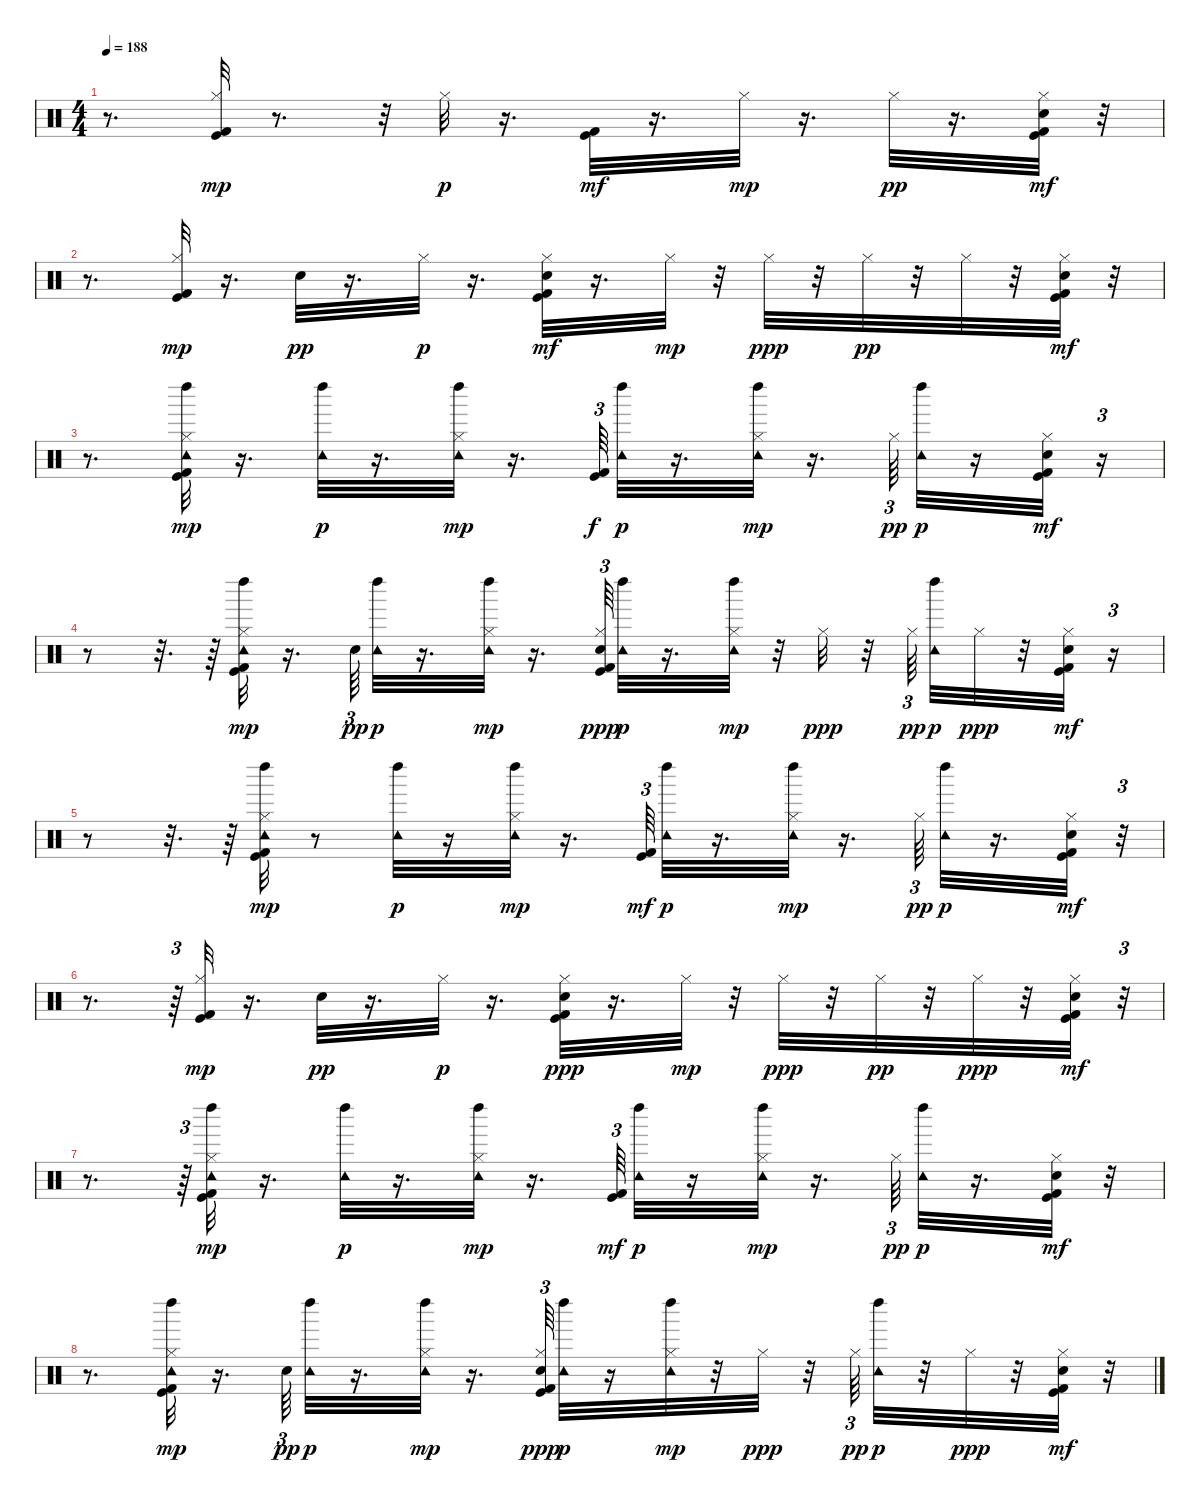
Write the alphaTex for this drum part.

\track "" {instrument percussion}
\staff {score}
\articulation defaults
\ts (4 4)
\tempo 188
\clef neutral
\ks c
r.8{d dy mf} ("Kick (hit) 2" "Hi-Hat (closed)" "Kick (hit)").32{dy mp} r.8{d} r.32 "Hi-Hat (closed)".32{dy p} r.16{d} ("Kick (hit) 2" "Kick (hit)").32{dy mf} r.16{d} "Hi-Hat (closed)".32{dy mp} r.16{d} "Hi-Hat (closed)".32{dy pp} r.16{d} ("Kick (hit) 2" "Hi-Hat (closed)" "Electric Snare (hit)" "Kick (hit)").32{dy mf} r.32 |
r.8{d} ("Kick (hit) 2" "Hi-Hat (closed)" "Kick (hit)").32{dy mp} r.16{d} "Electric Snare (hit)".32{dy pp} r.16{d} "Hi-Hat (closed)".32{dy p} r.16{d} ("Kick (hit) 2" "Electric Snare (hit)" "Hi-Hat (closed)" "Kick (hit)").32{dy mf} r.16{d} "Hi-Hat (closed)".32{dy mp} r.32 "Hi-Hat (closed)".32{dy ppp} r.32 "Hi-Hat (closed)".32{dy pp} r.32 "Hi-Hat (closed)".32 r.32 ("Kick (hit) 2" "Hi-Hat (closed)" "Electric Snare (hit)" "Kick (hit)").32{dy mf} r.32 |
r.8{d} ("Kick (hit) 2" "Hi-Hat (closed)" "Tambourine (hit)" "Left Maraca (hit)" "Kick (hit)").32{dy mp} r.16{d} ("Tambourine (hit)" "Left Maraca (hit)").32{dy p} r.16{d} ("Hi-Hat (closed)" "Tambourine (hit)" "Left Maraca (hit)").32{dy mp} r.16{d} ("Kick (hit) 2" "Kick (hit)").64{tu (3 2) dy f} ("Tambourine (hit)" "Left Maraca (hit)").32{dy p} r.16{d} ("Hi-Hat (closed)" "Tambourine (hit)" "Left Maraca (hit)").32{dy mp} r.16{d} "Hi-Hat (closed)".64{tu (3 2) dy pp} ("Tambourine (hit)" "Left Maraca (hit)").32{dy p} r.16 ("Kick (hit) 2" "Hi-Hat (closed)" "Electric Snare (hit)" "Kick (hit)").32{dy mf} r.16{tu (3 2)} |
r.8 r.32{d} r.64 ("Kick (hit) 2" "Hi-Hat (closed)" "Tambourine (hit)" "Left Maraca (hit)" "Kick (hit)").32{dy mp} r.16{d} "Electric Snare (hit)".64{tu (3 2) dy pp} ("Tambourine (hit)" "Left Maraca (hit)").32{dy p} r.16{d} ("Hi-Hat (closed)" "Tambourine (hit)" "Left Maraca (hit)").32{dy mp} r.16{d} ("Kick (hit) 2" "Electric Snare (hit)" "Hi-Hat (closed)" "Kick (hit)").64{tu (3 2) dy ppp} ("Tambourine (hit)" "Left Maraca (hit)").32{dy p} r.16{d} ("Hi-Hat (closed)" "Tambourine (hit)" "Left Maraca (hit)").32{dy mp} r.32 "Hi-Hat (closed)".32{dy ppp} r.32 "Hi-Hat (closed)".64{tu (3 2) dy pp beam splitsecondary} ("Tambourine (hit)" "Left Maraca (hit)").32{dy p} "Hi-Hat (closed)".32{dy ppp} r.32 ("Kick (hit) 2" "Hi-Hat (closed)" "Electric Snare (hit)" "Kick (hit)").32{dy mf} r.16{tu (3 2)} |
r.8 r.32{d} r.64 ("Kick (hit) 2" "Hi-Hat (closed)" "Tambourine (hit)" "Left Maraca (hit)" "Kick (hit)").32{dy mp} r.8 ("Tambourine (hit)" "Left Maraca (hit)").32{dy p} r.16 ("Hi-Hat (closed)" "Tambourine (hit)" "Left Maraca (hit)").32{dy mp} r.16{d} ("Kick (hit) 2" "Kick (hit)").64{tu (3 2) dy mf} ("Tambourine (hit)" "Left Maraca (hit)").32{dy p} r.16{d} ("Hi-Hat (closed)" "Tambourine (hit)" "Left Maraca (hit)").32{dy mp} r.16{d} "Hi-Hat (closed)".64{tu (3 2) dy pp} ("Tambourine (hit)" "Left Maraca (hit)").32{dy p} r.16{d} ("Kick (hit) 2" "Hi-Hat (closed)" "Electric Snare (hit)" "Kick (hit)").32{dy mf} r.32{tu (3 2)} |
r.8{d} r.64{tu (3 2)} ("Kick (hit) 2" "Hi-Hat (closed)" "Kick (hit)").32{dy mp} r.16{d} "Electric Snare (hit)".32{dy pp} r.16{d} "Hi-Hat (closed)".32{dy p} r.16{d} ("Kick (hit) 2" "Electric Snare (hit)" "Hi-Hat (closed)" "Kick (hit)").32{dy ppp} r.16{d} "Hi-Hat (closed)".32{dy mp} r.32 "Hi-Hat (closed)".32{dy ppp} r.32 "Hi-Hat (closed)".32{dy pp} r.32 "Hi-Hat (closed)".32{dy ppp} r.32 ("Kick (hit) 2" "Hi-Hat (closed)" "Electric Snare (hit)" "Kick (hit)").32{dy mf} r.32{tu (3 2)} |
r.8{d} r.64{tu (3 2)} ("Kick (hit) 2" "Hi-Hat (closed)" "Tambourine (hit)" "Left Maraca (hit)" "Kick (hit)").32{dy mp} r.16{d} ("Tambourine (hit)" "Left Maraca (hit)").32{dy p} r.16{d} ("Hi-Hat (closed)" "Tambourine (hit)" "Left Maraca (hit)").32{dy mp} r.16{d} ("Kick (hit) 2" "Kick (hit)").64{tu (3 2) dy mf} ("Tambourine (hit)" "Left Maraca (hit)").32{dy p} r.16 ("Hi-Hat (closed)" "Tambourine (hit)" "Left Maraca (hit)").32{dy mp} r.16{d} "Hi-Hat (closed)".64{tu (3 2) dy pp} ("Tambourine (hit)" "Left Maraca (hit)").32{dy p} r.16{d} ("Kick (hit) 2" "Hi-Hat (closed)" "Electric Snare (hit)" "Kick (hit)").32{dy mf} r.32 |
r.8{d} ("Kick (hit) 2" "Hi-Hat (closed)" "Tambourine (hit)" "Left Maraca (hit)" "Kick (hit)").32{dy mp} r.16{d} "Electric Snare (hit)".64{tu (3 2) dy pp} ("Tambourine (hit)" "Left Maraca (hit)").32{dy p} r.16{d} ("Hi-Hat (closed)" "Tambourine (hit)" "Left Maraca (hit)").32{dy mp} r.16{d} ("Kick (hit) 2" "Electric Snare (hit)" "Hi-Hat (closed)" "Kick (hit)").64{tu (3 2) dy ppp} ("Tambourine (hit)" "Left Maraca (hit)").32{dy p} r.16 ("Hi-Hat (closed)" "Tambourine (hit)" "Left Maraca (hit)").32{dy mp} r.32 "Hi-Hat (closed)".32{dy ppp} r.32 "Hi-Hat (closed)".64{tu (3 2) dy pp} ("Tambourine (hit)" "Left Maraca (hit)").32{dy p} r.32 "Hi-Hat (closed)".32{dy ppp} r.32 ("Kick (hit) 2" "Hi-Hat (closed)" "Electric Snare (hit)" "Kick (hit)").32{dy mf} r.32
